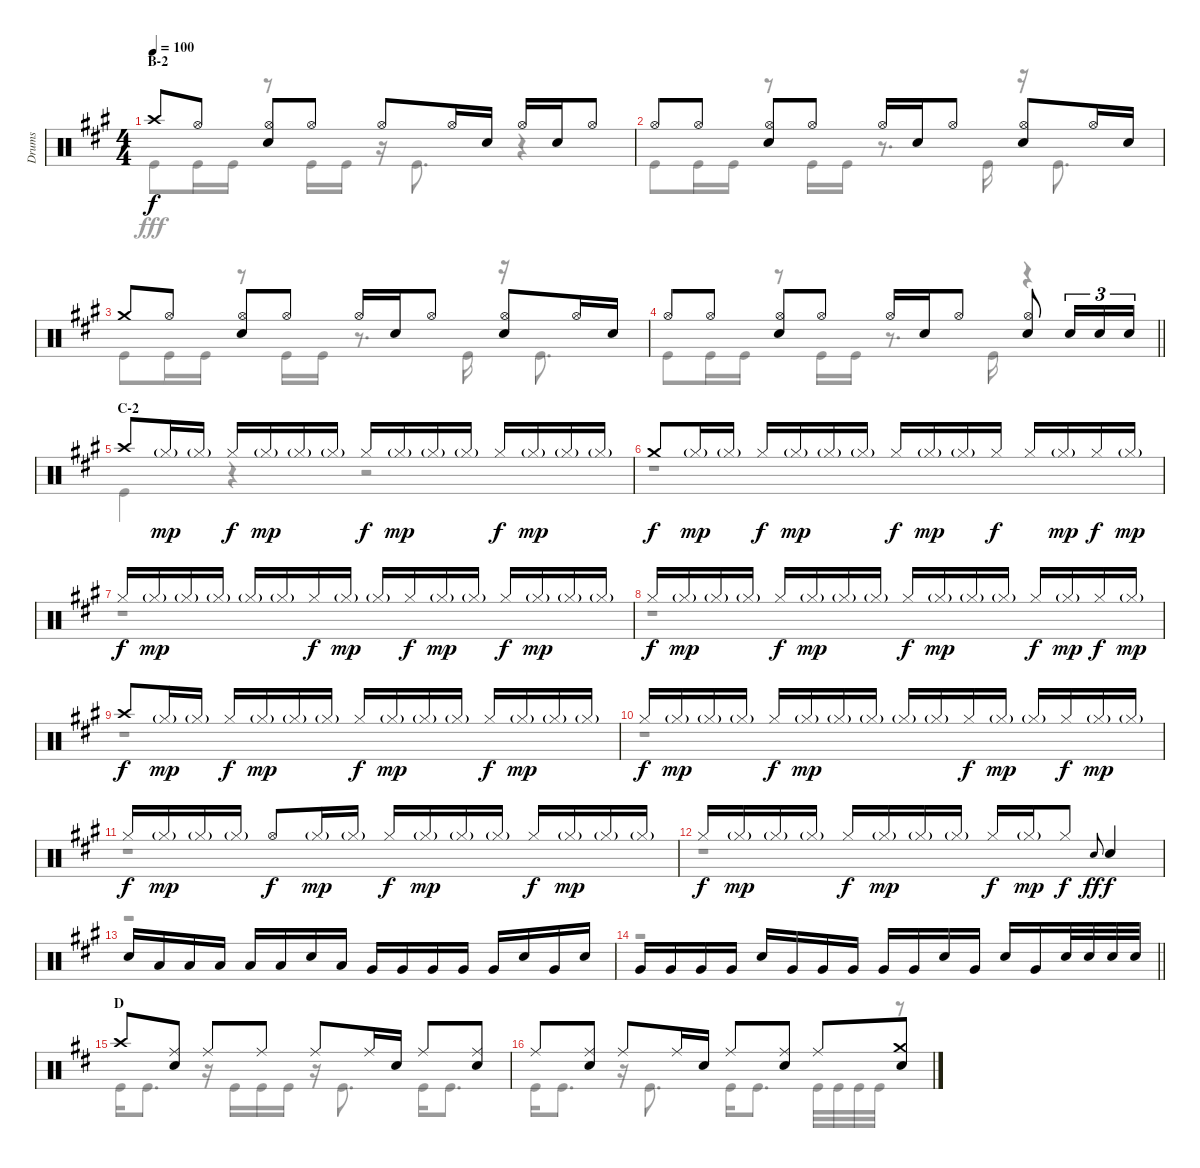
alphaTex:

\track ("Drums" "Drums") {instrument percussion}
\staff {score}
\articulation defaults
\voice
\ts (4 4)
\section ("" "B-2")
\tempo 100
\clef neutral
\ks a "Crash high (hit)".8{dy f} "Hi-Hat (open)".8
("Hi-Hat (open)" "Snare (hit) 2").8 "Hi-Hat (open)".8 "Hi-Hat (open)".8 "Hi-Hat (open)".16 "Snare (hit) 2".16 "Hi-Hat (open)".16 "Snare (hit) 2".16 "Hi-Hat (open)".8 |
"Hi-Hat (open)".8 "Hi-Hat (open)".8 ("Hi-Hat (open)" "Snare (hit) 2").8 "Hi-Hat (open)".8 "Hi-Hat (open)".16 "Snare (hit) 2".16 "Hi-Hat (open)".8 ("Hi-Hat (open)" "Snare (hit) 2").8 "Hi-Hat (open)".16 "Snare (hit) 2".16 |
"Crash medium (hit)".8 "Hi-Hat (open)".8 ("Hi-Hat (open)" "Snare (hit) 2").8 "Hi-Hat (open)".8 "Hi-Hat (open)".16 "Snare (hit) 2".16 "Hi-Hat (open)".8 ("Hi-Hat (open)" "Snare (hit) 2").8 "Hi-Hat (open)".16 "Snare (hit) 2".16 |
\barLineRight lightlight "Hi-Hat (open)".8 "Hi-Hat (open)".8
("Hi-Hat (open)" "Snare (hit) 2").8 "Hi-Hat (open)".8 "Hi-Hat (open)".16 "Snare (hit) 2".16 "Hi-Hat (open)".8 ("Hi-Hat (open)" "Snare (hit) 2").8 "Snare (hit) 2".16{tu (3 2)} "Snare (hit) 2".16{tu (3 2)} "Snare (hit) 2".16{tu (3 2)} |
\section ("" "C-2")
"Crash high (hit)".8 "Hi-Hat (closed)"{g}.16{dy mp} "Hi-Hat (closed)"{g}.16 "Hi-Hat (closed)".16{dy f} "Hi-Hat (closed)"{g}.16{dy mp} "Hi-Hat (closed)"{g}.16 "Hi-Hat (closed)"{g}.16 "Hi-Hat (closed)".16{dy f} "Hi-Hat (closed)"{g}.16{dy mp} "Hi-Hat (closed)"{g}.16 "Hi-Hat (closed)"{g}.16 "Hi-Hat (closed)".16{dy f} "Hi-Hat (closed)"{g}.16{dy mp} "Hi-Hat (closed)"{g}.16 "Hi-Hat (closed)"{g}.16 |
"Crash medium (hit)".8{dy f} "Hi-Hat (closed)"{g}.16{dy mp} "Hi-Hat (closed)"{g}.16 "Hi-Hat (closed)".16{dy f} "Hi-Hat (closed)"{g}.16{dy mp} "Hi-Hat (closed)"{g}.16 "Hi-Hat (closed)"{g}.16 "Hi-Hat (closed)".16{dy f} "Hi-Hat (closed)"{g}.16{dy mp} "Hi-Hat (closed)"{g}.16 "Hi-Hat (closed)".16{dy f} "Hi-Hat (closed)".16 "Hi-Hat (closed)"{g}.16{dy mp} "Hi-Hat (closed)".16{dy f} "Hi-Hat (closed)"{g}.16{dy mp} |
"Hi-Hat (closed)".16{dy f} "Hi-Hat (closed)"{g}.16{dy mp} "Hi-Hat (closed)"{g}.16 "Hi-Hat (closed)"{g}.16 "Hi-Hat (closed)"{g}.16 "Hi-Hat (closed)"{g}.16 "Hi-Hat (closed)".16{dy f} "Hi-Hat (closed)"{g}.16{dy mp} "Hi-Hat (closed)"{g}.16 "Hi-Hat (closed)".16{dy f} "Hi-Hat (closed)"{g}.16{dy mp} "Hi-Hat (closed)"{g}.16 "Hi-Hat (closed)".16{dy f} "Hi-Hat (closed)"{g}.16{dy mp} "Hi-Hat (closed)"{g}.16 "Hi-Hat (closed)"{g}.16 |
"Hi-Hat (closed)".16{dy f} "Hi-Hat (closed)"{g}.16{dy mp} "Hi-Hat (closed)"{g}.16 "Hi-Hat (closed)"{g}.16 "Hi-Hat (closed)".16{dy f} "Hi-Hat (closed)"{g}.16{dy mp} "Hi-Hat (closed)"{g}.16 "Hi-Hat (closed)"{g}.16 "Hi-Hat (closed)".16{dy f} "Hi-Hat (closed)"{g}.16{dy mp} "Hi-Hat (closed)"{g}.16 "Hi-Hat (closed)"{g}.16 "Hi-Hat (closed)".16{dy f} "Hi-Hat (closed)"{g}.16{dy mp} "Hi-Hat (closed)".16{dy f} "Hi-Hat (closed)"{g}.16{dy mp} |
"Crash high (hit)".8{dy f} "Hi-Hat (closed)"{g}.16{dy mp} "Hi-Hat (closed)"{g}.16 "Hi-Hat (closed)".16{dy f} "Hi-Hat (closed)"{g}.16{dy mp} "Hi-Hat (closed)"{g}.16 "Hi-Hat (closed)"{g}.16 "Hi-Hat (closed)".16{dy f} "Hi-Hat (closed)"{g}.16{dy mp} "Hi-Hat (closed)"{g}.16 "Hi-Hat (closed)"{g}.16 "Hi-Hat (closed)".16{dy f} "Hi-Hat (closed)"{g}.16{dy mp} "Hi-Hat (closed)"{g}.16 "Hi-Hat (closed)"{g}.16 |
"Hi-Hat (closed)".16{dy f} "Hi-Hat (closed)"{g}.16{dy mp} "Hi-Hat (closed)"{g}.16 "Hi-Hat (closed)"{g}.16 "Hi-Hat (closed)".16{dy f} "Hi-Hat (closed)"{g}.16{dy mp} "Hi-Hat (closed)"{g}.16 "Hi-Hat (closed)"{g}.16 "Hi-Hat (closed)"{g}.16 "Hi-Hat (closed)"{g}.16 "Hi-Hat (closed)".16{dy f} "Hi-Hat (closed)"{g}.16{dy mp} "Hi-Hat (closed)"{g}.16 "Hi-Hat (closed)".16{dy f} "Hi-Hat (closed)"{g}.16{dy mp} "Hi-Hat (closed)"{g}.16 |
"Hi-Hat (closed)".16{dy f} "Hi-Hat (closed)"{g}.16{dy mp} "Hi-Hat (closed)"{g}.16 "Hi-Hat (closed)"{g}.16 "Hi-Hat (open)".8{dy f} "Hi-Hat (closed)"{g}.16{dy mp} "Hi-Hat (closed)"{g}.16 "Hi-Hat (closed)".16{dy f} "Hi-Hat (closed)"{g}.16{dy mp} "Hi-Hat (closed)"{g}.16 "Hi-Hat (closed)"{g}.16 "Hi-Hat (closed)".16{dy f} "Hi-Hat (closed)"{g}.16{dy mp} "Hi-Hat (closed)"{g}.16 "Hi-Hat (closed)"{g}.16 |
"Hi-Hat (closed)".16{dy f} "Hi-Hat (closed)"{g}.16{dy mp} "Hi-Hat (closed)"{g}.16 "Hi-Hat (closed)"{g}.16 "Hi-Hat (closed)".16{dy f} "Hi-Hat (closed)"{g}.16{dy mp} "Hi-Hat (closed)"{g}.16 "Hi-Hat (closed)"{g}.16 "Hi-Hat (closed)".16{dy f} "Hi-Hat (closed)"{g}.16{dy mp} "Hi-Hat (closed)".8{dy f} "Snare (hit) 2".8{gr onbeat dy ff} "Snare (hit) 2".4{dy f} |
"Snare (hit) 2".16 "Low Tom (hit)".16 "Low Tom (hit)".16 "Low Tom (hit)".16 "Low Tom (hit)".16 "Low Tom (hit)".16 "Snare (hit) 2".16 "Low Tom (hit)".16 "Very Low Tom (hit)".16 "Very Low Tom (hit)".16 "Very Low Tom (hit)".16 "Very Low Tom (hit)".16 "Very Low Tom (hit)".16 "Snare (hit) 2".16 "Very Low Tom (hit)".16 "Snare (hit) 2".16 |
\barLineRight lightlight "Very Low Tom (hit)".16 "Very Low Tom (hit)".16 "Very Low Tom (hit)".16 "Very Low Tom (hit)".16 "Snare (hit) 2".16 "Very Low Tom (hit)".16 "Very Low Tom (hit)".16 "Very Low Tom (hit)".16 "Very Low Tom (hit)".16 "Very Low Tom (hit)".16 "Snare (hit) 2".16 "Very Low Tom (hit)".16 "Snare (hit) 2".16 "Very Low Tom (hit)".16 "Snare (hit) 2".32 "Snare (hit) 2".32 "Snare (hit) 2".32 "Snare (hit) 2".32
|
\section ("" "D")
\ks d "Crash high (hit)".8
("Ride (middle)" "Snare (hit) 2").8 "Ride (middle)".8 "Ride (middle)".8 "Ride (middle)".8 "Ride (middle)".16 "Snare (hit) 2".16 "Ride (middle)".8 ("Ride (middle)" "Snare (hit) 2").8 |
"Ride (middle)".8 ("Ride (middle)" "Snare (hit) 2").8 "Ride (middle)".8 "Ride (middle)".16 "Snare (hit) 2".16 "Ride (middle)".8 ("Ride (middle)" "Snare (hit) 2").8 "Ride (middle)".8 ("Crash medium (hit)" "Snare (hit) 2").8
\voice
\clef neutral
\ottava regular
\simile none
\ks a "Kick (hit)".8{dy fff} "Kick (hit)".16 "Kick (hit)".16
r.8 "Kick (hit)".16 "Kick (hit)".16 r.16 "Kick (hit)".8{d} r.4 |
"Kick (hit)".8 "Kick (hit)".16 "Kick (hit)".16 r.8 "Kick (hit)".16 "Kick (hit)".16 r.8{d} "Kick (hit)".16 r.16 "Kick (hit)".8{d} |
"Kick (hit)".8 "Kick (hit)".16 "Kick (hit)".16 r.8 "Kick (hit)".16 "Kick (hit)".16 r.8{d} "Kick (hit)".16 r.16 "Kick (hit)".8{d} |
\barLineRight lightlight "Kick (hit)".8 "Kick (hit)".16 "Kick (hit)".16
r.8 "Kick (hit)".16 "Kick (hit)".16 r.8{d} "Kick (hit)".16 r.4 |
"Kick (hit)".4 r.4 r.2 |
r.1 |
r.1 |
r.1 |
r.1 |
r.1 |
r.1 |
r.1 |
r.1 |
\barLineRight lightlight
r.1 |
\ks d "Kick (hit)".16 "Kick (hit)".8{d}
r.16 "Kick (hit)".16 "Kick (hit)".16 "Kick (hit)".16 r.16 "Kick (hit)".8{d} "Kick (hit)".16 "Kick (hit)".8{d} |
"Kick (hit)".16 "Kick (hit)".8{d} r.16 "Kick (hit)".8{d} "Kick (hit)".16 "Kick (hit)".8{d} "Kick (hit)".32 "Kick (hit)".32 "Kick (hit)".32 "Kick (hit)".32 r.8
